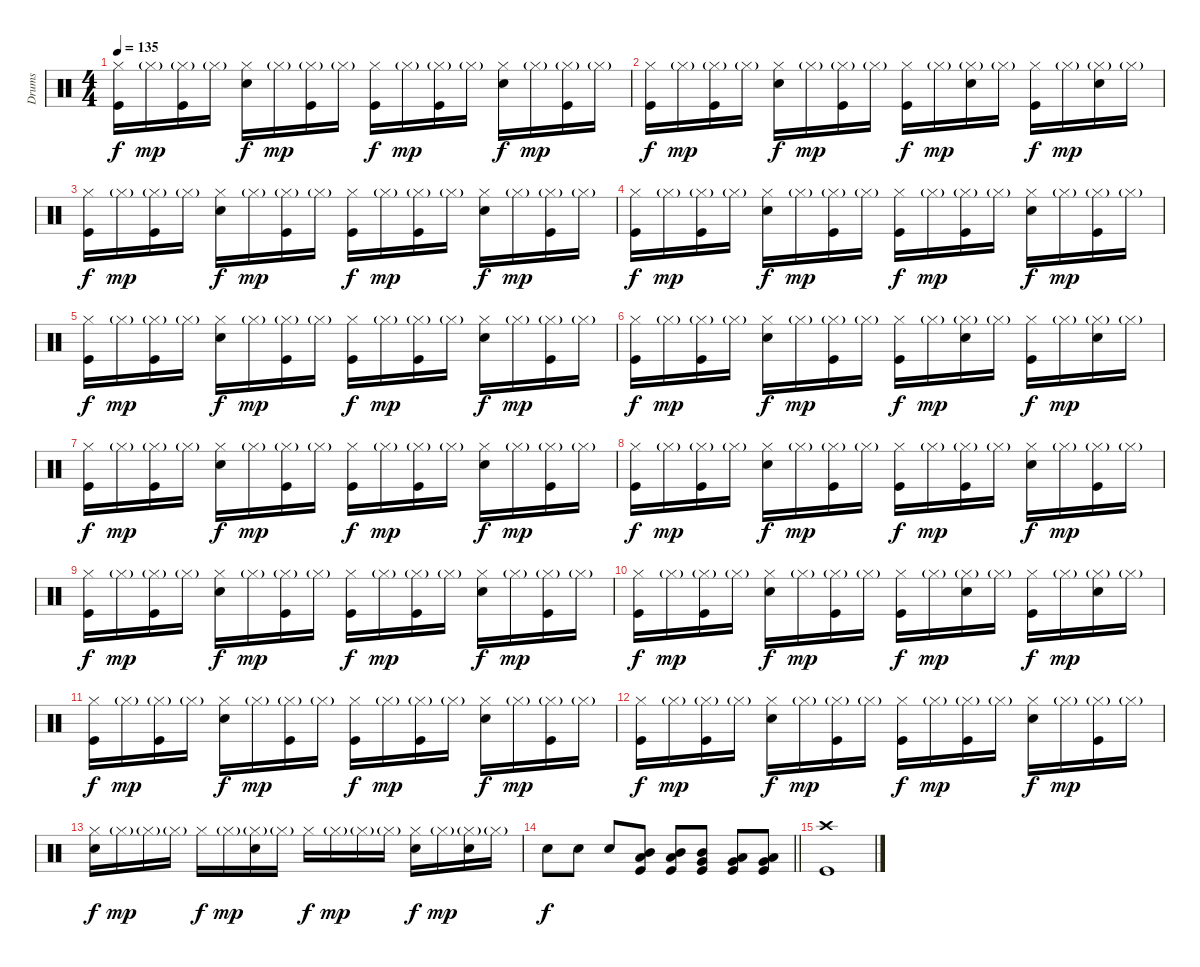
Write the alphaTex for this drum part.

\track ("Drums" "Drums") {instrument percussion}
\staff {score}
\articulation defaults
\ts (4 4)
\tempo 135
\clef neutral
\ks c
("Hi-Hat (closed)" "Kick (hit)").16{dy f} "Hi-Hat (closed)"{g}.16{dy mp} ("Hi-Hat (closed)"{g} "Kick (hit)").16 "Hi-Hat (closed)"{g}.16 ("Hi-Hat (closed)" "Snare (hit) 2").16{dy f} "Hi-Hat (closed)"{g}.16{dy mp} ("Hi-Hat (closed)"{g} "Kick (hit)").16 "Hi-Hat (closed)"{g}.16 ("Hi-Hat (closed)" "Kick (hit)").16{dy f} "Hi-Hat (closed)"{g}.16{dy mp} ("Hi-Hat (closed)"{g} "Kick (hit)").16 "Hi-Hat (closed)"{g}.16 ("Hi-Hat (closed)" "Snare (hit) 2").16{dy f} "Hi-Hat (closed)"{g}.16{dy mp} ("Hi-Hat (closed)"{g} "Kick (hit)").16 "Hi-Hat (closed)"{g}.16 |
("Hi-Hat (closed)" "Kick (hit)").16{dy f} "Hi-Hat (closed)"{g}.16{dy mp} ("Hi-Hat (closed)"{g} "Kick (hit)").16 "Hi-Hat (closed)"{g}.16 ("Hi-Hat (closed)" "Snare (hit) 2").16{dy f} "Hi-Hat (closed)"{g}.16{dy mp} ("Hi-Hat (closed)"{g} "Kick (hit)").16 "Hi-Hat (closed)"{g}.16 ("Hi-Hat (closed)" "Kick (hit)").16{dy f} "Hi-Hat (closed)"{g}.16{dy mp} ("Hi-Hat (closed)"{g} "Snare (hit) 2").16 "Hi-Hat (closed)"{g}.16 ("Hi-Hat (closed)" "Kick (hit)").16{dy f} "Hi-Hat (closed)"{g}.16{dy mp} ("Hi-Hat (closed)"{g} "Snare (hit) 2").16 "Hi-Hat (closed)"{g}.16 |
("Hi-Hat (closed)" "Kick (hit)").16{dy f} "Hi-Hat (closed)"{g}.16{dy mp} ("Hi-Hat (closed)"{g} "Kick (hit)").16 "Hi-Hat (closed)"{g}.16 ("Hi-Hat (closed)" "Snare (hit) 2").16{dy f} "Hi-Hat (closed)"{g}.16{dy mp} ("Hi-Hat (closed)"{g} "Kick (hit)").16 "Hi-Hat (closed)"{g}.16 ("Hi-Hat (closed)" "Kick (hit)").16{dy f} "Hi-Hat (closed)"{g}.16{dy mp} ("Hi-Hat (closed)"{g} "Kick (hit)").16 "Hi-Hat (closed)"{g}.16 ("Hi-Hat (closed)" "Snare (hit) 2").16{dy f} "Hi-Hat (closed)"{g}.16{dy mp} ("Hi-Hat (closed)"{g} "Kick (hit)").16 "Hi-Hat (closed)"{g}.16 |
("Hi-Hat (closed)" "Kick (hit)").16{dy f} "Hi-Hat (closed)"{g}.16{dy mp} ("Hi-Hat (closed)"{g} "Kick (hit)").16 "Hi-Hat (closed)"{g}.16 ("Hi-Hat (closed)" "Snare (hit) 2").16{dy f} "Hi-Hat (closed)"{g}.16{dy mp} ("Hi-Hat (closed)"{g} "Kick (hit)").16 "Hi-Hat (closed)"{g}.16 ("Hi-Hat (closed)" "Kick (hit)").16{dy f} "Hi-Hat (closed)"{g}.16{dy mp} ("Hi-Hat (closed)"{g} "Kick (hit)").16 "Hi-Hat (closed)"{g}.16 ("Hi-Hat (closed)" "Snare (hit) 2").16{dy f} "Hi-Hat (closed)"{g}.16{dy mp} ("Hi-Hat (closed)"{g} "Kick (hit)").16 "Hi-Hat (closed)"{g}.16 |
("Hi-Hat (closed)" "Kick (hit)").16{dy f} "Hi-Hat (closed)"{g}.16{dy mp} ("Hi-Hat (closed)"{g} "Kick (hit)").16 "Hi-Hat (closed)"{g}.16 ("Hi-Hat (closed)" "Snare (hit) 2").16{dy f} "Hi-Hat (closed)"{g}.16{dy mp} ("Hi-Hat (closed)"{g} "Kick (hit)").16 "Hi-Hat (closed)"{g}.16 ("Hi-Hat (closed)" "Kick (hit)").16{dy f} "Hi-Hat (closed)"{g}.16{dy mp} ("Hi-Hat (closed)"{g} "Kick (hit)").16 "Hi-Hat (closed)"{g}.16 ("Hi-Hat (closed)" "Snare (hit) 2").16{dy f} "Hi-Hat (closed)"{g}.16{dy mp} ("Hi-Hat (closed)"{g} "Kick (hit)").16 "Hi-Hat (closed)"{g}.16 |
("Hi-Hat (closed)" "Kick (hit)").16{dy f} "Hi-Hat (closed)"{g}.16{dy mp} ("Hi-Hat (closed)"{g} "Kick (hit)").16 "Hi-Hat (closed)"{g}.16 ("Hi-Hat (closed)" "Snare (hit) 2").16{dy f} "Hi-Hat (closed)"{g}.16{dy mp} ("Hi-Hat (closed)"{g} "Kick (hit)").16 "Hi-Hat (closed)"{g}.16 ("Hi-Hat (closed)" "Kick (hit)").16{dy f} "Hi-Hat (closed)"{g}.16{dy mp} ("Hi-Hat (closed)"{g} "Snare (hit) 2").16 "Hi-Hat (closed)"{g}.16 ("Hi-Hat (closed)" "Kick (hit)").16{dy f} "Hi-Hat (closed)"{g}.16{dy mp} ("Hi-Hat (closed)"{g} "Snare (hit) 2").16 "Hi-Hat (closed)"{g}.16 |
("Hi-Hat (closed)" "Kick (hit)").16{dy f} "Hi-Hat (closed)"{g}.16{dy mp} ("Hi-Hat (closed)"{g} "Kick (hit)").16 "Hi-Hat (closed)"{g}.16 ("Hi-Hat (closed)" "Snare (hit) 2").16{dy f} "Hi-Hat (closed)"{g}.16{dy mp} ("Hi-Hat (closed)"{g} "Kick (hit)").16 "Hi-Hat (closed)"{g}.16 ("Hi-Hat (closed)" "Kick (hit)").16{dy f} "Hi-Hat (closed)"{g}.16{dy mp} ("Hi-Hat (closed)"{g} "Kick (hit)").16 "Hi-Hat (closed)"{g}.16 ("Hi-Hat (closed)" "Snare (hit) 2").16{dy f} "Hi-Hat (closed)"{g}.16{dy mp} ("Hi-Hat (closed)"{g} "Kick (hit)").16 "Hi-Hat (closed)"{g}.16 |
("Hi-Hat (closed)" "Kick (hit)").16{dy f} "Hi-Hat (closed)"{g}.16{dy mp} ("Hi-Hat (closed)"{g} "Kick (hit)").16 "Hi-Hat (closed)"{g}.16 ("Hi-Hat (closed)" "Snare (hit) 2").16{dy f} "Hi-Hat (closed)"{g}.16{dy mp} ("Hi-Hat (closed)"{g} "Kick (hit)").16 "Hi-Hat (closed)"{g}.16 ("Hi-Hat (closed)" "Kick (hit)").16{dy f} "Hi-Hat (closed)"{g}.16{dy mp} ("Hi-Hat (closed)"{g} "Kick (hit)").16 "Hi-Hat (closed)"{g}.16 ("Hi-Hat (closed)" "Snare (hit) 2").16{dy f} "Hi-Hat (closed)"{g}.16{dy mp} ("Hi-Hat (closed)"{g} "Kick (hit)").16 "Hi-Hat (closed)"{g}.16 |
("Hi-Hat (closed)" "Kick (hit)").16{dy f} "Hi-Hat (closed)"{g}.16{dy mp} ("Hi-Hat (closed)"{g} "Kick (hit)").16 "Hi-Hat (closed)"{g}.16 ("Hi-Hat (closed)" "Snare (hit) 2").16{dy f} "Hi-Hat (closed)"{g}.16{dy mp} ("Hi-Hat (closed)"{g} "Kick (hit)").16 "Hi-Hat (closed)"{g}.16 ("Hi-Hat (closed)" "Kick (hit)").16{dy f} "Hi-Hat (closed)"{g}.16{dy mp} ("Hi-Hat (closed)"{g} "Kick (hit)").16 "Hi-Hat (closed)"{g}.16 ("Hi-Hat (closed)" "Snare (hit) 2").16{dy f} "Hi-Hat (closed)"{g}.16{dy mp} ("Hi-Hat (closed)"{g} "Kick (hit)").16 "Hi-Hat (closed)"{g}.16 |
("Hi-Hat (closed)" "Kick (hit)").16{dy f} "Hi-Hat (closed)"{g}.16{dy mp} ("Hi-Hat (closed)"{g} "Kick (hit)").16 "Hi-Hat (closed)"{g}.16 ("Hi-Hat (closed)" "Snare (hit) 2").16{dy f} "Hi-Hat (closed)"{g}.16{dy mp} ("Hi-Hat (closed)"{g} "Kick (hit)").16 "Hi-Hat (closed)"{g}.16 ("Hi-Hat (closed)" "Kick (hit)").16{dy f} "Hi-Hat (closed)"{g}.16{dy mp} ("Hi-Hat (closed)"{g} "Snare (hit) 2").16 "Hi-Hat (closed)"{g}.16 ("Hi-Hat (closed)" "Kick (hit)").16{dy f} "Hi-Hat (closed)"{g}.16{dy mp} ("Hi-Hat (closed)"{g} "Snare (hit) 2").16 "Hi-Hat (closed)"{g}.16 |
("Hi-Hat (closed)" "Kick (hit)").16{dy f} "Hi-Hat (closed)"{g}.16{dy mp} ("Hi-Hat (closed)"{g} "Kick (hit)").16 "Hi-Hat (closed)"{g}.16 ("Hi-Hat (closed)" "Snare (hit) 2").16{dy f} "Hi-Hat (closed)"{g}.16{dy mp} ("Hi-Hat (closed)"{g} "Kick (hit)").16 "Hi-Hat (closed)"{g}.16 ("Hi-Hat (closed)" "Kick (hit)").16{dy f} "Hi-Hat (closed)"{g}.16{dy mp} ("Hi-Hat (closed)"{g} "Kick (hit)").16 "Hi-Hat (closed)"{g}.16 ("Hi-Hat (closed)" "Snare (hit) 2").16{dy f} "Hi-Hat (closed)"{g}.16{dy mp} ("Hi-Hat (closed)"{g} "Kick (hit)").16 "Hi-Hat (closed)"{g}.16 |
("Hi-Hat (closed)" "Kick (hit)").16{dy f} "Hi-Hat (closed)"{g}.16{dy mp} ("Hi-Hat (closed)"{g} "Kick (hit)").16 "Hi-Hat (closed)"{g}.16 ("Hi-Hat (closed)" "Snare (hit) 2").16{dy f} "Hi-Hat (closed)"{g}.16{dy mp} ("Hi-Hat (closed)"{g} "Kick (hit)").16 "Hi-Hat (closed)"{g}.16 ("Hi-Hat (closed)" "Kick (hit)").16{dy f} "Hi-Hat (closed)"{g}.16{dy mp} ("Hi-Hat (closed)"{g} "Kick (hit)").16 "Hi-Hat (closed)"{g}.16 ("Hi-Hat (closed)" "Snare (hit) 2").16{dy f} "Hi-Hat (closed)"{g}.16{dy mp} ("Hi-Hat (closed)"{g} "Kick (hit)").16 "Hi-Hat (closed)"{g}.16 |
("Hi-Hat (closed)" "Snare (hit) 2").16{dy f} "Hi-Hat (closed)"{g}.16{dy mp} "Hi-Hat (closed)"{g}.16 "Hi-Hat (closed)"{g}.16 "Hi-Hat (closed)".16{dy f} "Hi-Hat (closed)"{g}.16{dy mp} ("Hi-Hat (closed)"{g} "Snare (hit) 2").16 "Hi-Hat (closed)"{g}.16 "Hi-Hat (closed)".16{dy f} "Hi-Hat (closed)"{g}.16{dy mp} "Hi-Hat (closed)"{g}.16 "Hi-Hat (closed)"{g}.16 ("Hi-Hat (closed)" "Snare (hit) 2").16{dy f} "Hi-Hat (closed)"{g}.16{dy mp} ("Hi-Hat (closed)"{g} "Snare (hit) 2").16 "Hi-Hat (closed)"{g}.16 |
\barLineRight lightlight "Snare (hit) 2".8{dy f} "Snare (hit) 2".8 "Snare (hit) 2".8
("Mid Tom (hit)" "Low Tom (hit)" "Kick (hit)").8 ("Mid Tom (hit)" "Low Tom (hit)" "Kick (hit)").8 ("Mid Tom (hit)" "Very Low Tom (hit)" "Kick (hit)").8 ("Low Tom (hit)" "Very Low Tom (hit)" "Kick (hit)").8 ("Low Tom (hit)" "Very Low Tom (hit)" "Kick (hit)").8 |
("Crash high (hit)" "Kick (hit)").1
